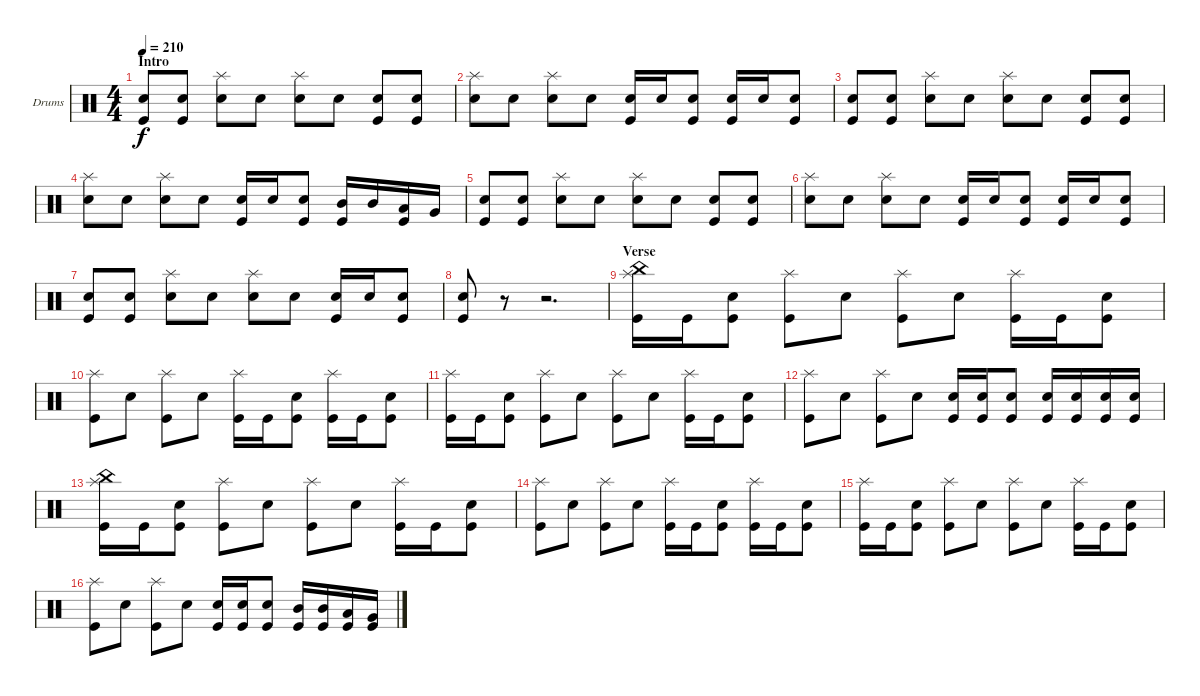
\defaultSystemsLayout 4
\bracketExtendMode groupsimilarinstruments
\firstSystemTrackNameOrientation horizontal
\otherSystemsTrackNameOrientation horizontal
\track ("Drumkit" "Drums") {instrument percussion}
\staff {score}
\articulation defaults
\ts (4 4)
\section ("" "Intro")
\tempo 210
\clef neutral
\ks c
("Kick (hit)" "Snare (hit) 2").8{dy f} ("Kick (hit)" "Snare (hit) 2").8 ("Splash (hit)" "Snare (hit) 2").8 "Snare (hit) 2".8 ("Splash (hit)" "Snare (hit) 2").8 "Snare (hit) 2".8 ("Kick (hit)" "Snare (hit) 2").8 ("Kick (hit)" "Snare (hit) 2").8 |
("Splash (hit)" "Snare (hit) 2").8 "Snare (hit) 2".8 ("Splash (hit)" "Snare (hit) 2").8 "Snare (hit) 2".8 ("Kick (hit)" "Snare (hit) 2").16 "Snare (hit) 2".16 ("Kick (hit)" "Snare (hit) 2").8 ("Kick (hit)" "Snare (hit) 2").16 "Snare (hit) 2".16 ("Kick (hit)" "Snare (hit) 2").8 |
("Kick (hit)" "Snare (hit) 2").8 ("Kick (hit)" "Snare (hit) 2").8 ("Splash (hit)" "Snare (hit) 2").8 "Snare (hit) 2".8 ("Splash (hit)" "Snare (hit) 2").8 "Snare (hit) 2".8 ("Kick (hit)" "Snare (hit) 2").8 ("Kick (hit)" "Snare (hit) 2").8 |
("Splash (hit)" "Snare (hit) 2").8 "Snare (hit) 2".8 ("Splash (hit)" "Snare (hit) 2").8 "Snare (hit) 2".8 ("Kick (hit)" "Snare (hit) 2").16 "Snare (hit) 2".16 ("Kick (hit)" "Snare (hit) 2").8 ("Kick (hit)" "Mid Tom (hit)").16 "Mid Tom (hit)".16 ("Kick (hit)" "Low Tom (hit)").16 "Very Low Tom (hit)".16 |
("Kick (hit)" "Snare (hit) 2").8 ("Kick (hit)" "Snare (hit) 2").8 ("Splash (hit)" "Snare (hit) 2").8 "Snare (hit) 2".8 ("Splash (hit)" "Snare (hit) 2").8 "Snare (hit) 2".8 ("Kick (hit)" "Snare (hit) 2").8 ("Kick (hit)" "Snare (hit) 2").8 |
("Splash (hit)" "Snare (hit) 2").8 "Snare (hit) 2".8 ("Splash (hit)" "Snare (hit) 2").8 "Snare (hit) 2".8 ("Kick (hit)" "Snare (hit) 2").16 "Snare (hit) 2".16 ("Kick (hit)" "Snare (hit) 2").8 ("Kick (hit)" "Snare (hit) 2").16 "Snare (hit) 2".16 ("Kick (hit)" "Snare (hit) 2").8 |
("Kick (hit)" "Snare (hit) 2").8 ("Kick (hit)" "Snare (hit) 2").8 ("Splash (hit)" "Snare (hit) 2").8 "Snare (hit) 2".8 ("Splash (hit)" "Snare (hit) 2").8 "Snare (hit) 2".8 ("Kick (hit)" "Snare (hit) 2").16 "Snare (hit) 2".16 ("Kick (hit)" "Snare (hit) 2").8 |
("Snare (hit) 2" "Kick (hit)").8 r.8 r.2{d} |
\section ("" "Verse")
("Kick (hit)" "Splash (hit)" "China (hit)").16 "Kick (hit)".16 ("Kick (hit)" "Snare (hit) 2").8 ("Splash (hit)" "Kick (hit)").8 "Snare (hit) 2".8 ("Splash (hit)" "Kick (hit)").8 "Snare (hit) 2".8 ("Kick (hit)" "Splash (hit)").16 "Kick (hit)".16 ("Kick (hit)" "Snare (hit) 2").8 |
("Splash (hit)" "Kick (hit)").8 "Snare (hit) 2".8 ("Splash (hit)" "Kick (hit)").8 "Snare (hit) 2".8 ("Kick (hit)" "Splash (hit)").16 "Kick (hit)".16 ("Kick (hit)" "Snare (hit) 2").8 ("Kick (hit)" "Splash (hit)").16 "Kick (hit)".16 ("Kick (hit)" "Snare (hit) 2").8 |
("Kick (hit)" "Splash (hit)").16 "Kick (hit)".16 ("Kick (hit)" "Snare (hit) 2").8 ("Splash (hit)" "Kick (hit)").8 "Snare (hit) 2".8 ("Splash (hit)" "Kick (hit)").8 "Snare (hit) 2".8 ("Kick (hit)" "Splash (hit)").16 "Kick (hit)".16 ("Kick (hit)" "Snare (hit) 2").8 |
("Splash (hit)" "Kick (hit)").8 "Snare (hit) 2".8 ("Splash (hit)" "Kick (hit)").8 "Snare (hit) 2".8 ("Kick (hit)" "Snare (hit) 2").16 ("Kick (hit)" "Snare (hit) 2").16 ("Kick (hit)" "Snare (hit) 2").8 ("Kick (hit)" "Snare (hit) 2").16 ("Kick (hit)" "Snare (hit) 2").16 ("Snare (hit) 2" "Kick (hit)").16 ("Kick (hit)" "Snare (hit) 2").16 |
("Kick (hit)" "Splash (hit)" "China (hit)").16 "Kick (hit)".16 ("Kick (hit)" "Snare (hit) 2").8 ("Splash (hit)" "Kick (hit)").8 "Snare (hit) 2".8 ("Splash (hit)" "Kick (hit)").8 "Snare (hit) 2".8 ("Kick (hit)" "Splash (hit)").16 "Kick (hit)".16 ("Kick (hit)" "Snare (hit) 2").8 |
("Splash (hit)" "Kick (hit)").8 "Snare (hit) 2".8 ("Splash (hit)" "Kick (hit)").8 "Snare (hit) 2".8 ("Kick (hit)" "Splash (hit)").16 "Kick (hit)".16 ("Kick (hit)" "Snare (hit) 2").8 ("Kick (hit)" "Splash (hit)").16 "Kick (hit)".16 ("Kick (hit)" "Snare (hit) 2").8 |
("Kick (hit)" "Splash (hit)").16 "Kick (hit)".16 ("Kick (hit)" "Snare (hit) 2").8 ("Splash (hit)" "Kick (hit)").8 "Snare (hit) 2".8 ("Splash (hit)" "Kick (hit)").8 "Snare (hit) 2".8 ("Kick (hit)" "Splash (hit)").16 "Kick (hit)".16 ("Kick (hit)" "Snare (hit) 2").8 |
("Splash (hit)" "Kick (hit)").8 "Snare (hit) 2".8 ("Splash (hit)" "Kick (hit)").8 "Snare (hit) 2".8 ("Kick (hit)" "Snare (hit) 2").16 ("Kick (hit)" "Snare (hit) 2").16 ("Kick (hit)" "Snare (hit) 2").8 ("Kick (hit)" "Mid Tom (hit)").16 ("Kick (hit)" "Mid Tom (hit)").16 ("Kick (hit)" "Low Tom (hit)").16 ("Kick (hit)" "Very Low Tom (hit)").16
